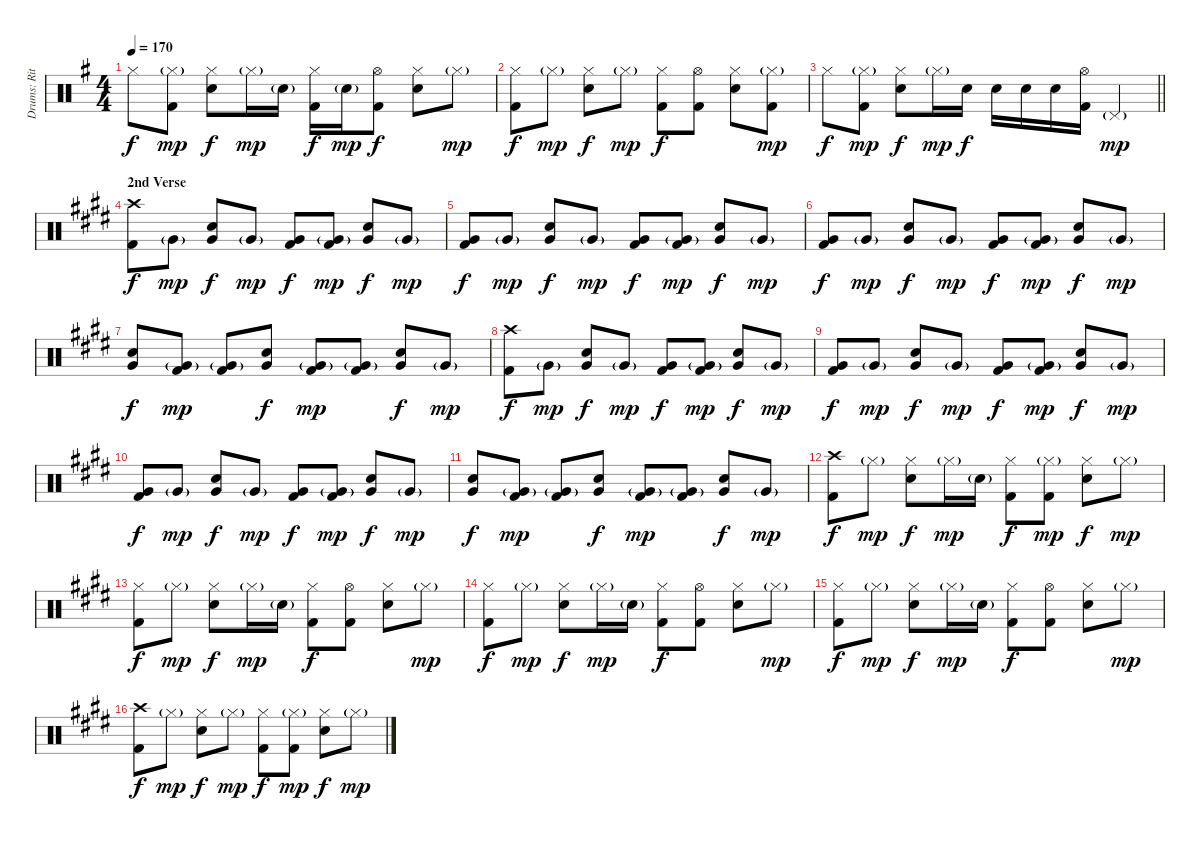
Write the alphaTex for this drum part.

\track ("Drums: Ritsu Tainaka" "Drums: Rit") {instrument percussion}
\staff {score}
\articulation defaults
\ts (4 4)
\tempo 170
\clef neutral
\ks eminor "Hi-Hat (closed)".8{dy f}
("Hi-Hat (closed)"{g} "Kick (hit) 2").8{dy mp} ("Hi-Hat (closed)" "Electric Snare (hit)").8{dy f} "Hi-Hat (closed)"{g}.16{dy mp} "Electric Snare (hit)"{g}.16 ("Hi-Hat (closed)" "Kick (hit) 2").16{dy f} "Electric Snare (hit)"{g}.16{dy mp} ("Hi-Hat (open)" "Kick (hit) 2").8{dy f} ("Hi-Hat (closed)" "Electric Snare (hit)").8 "Hi-Hat (closed)"{g}.8{dy mp} |
("Hi-Hat (closed)" "Kick (hit) 2").8{dy f} "Hi-Hat (closed)"{g}.8{dy mp} ("Hi-Hat (closed)" "Electric Snare (hit)").8{dy f} "Hi-Hat (closed)"{g}.8{dy mp} ("Hi-Hat (closed)" "Kick (hit) 2").8{dy f} ("Hi-Hat (open)" "Kick (hit) 2").8 ("Hi-Hat (closed)" "Electric Snare (hit)").8 ("Hi-Hat (closed)"{g} "Kick (hit) 2").8{dy mp} |
\barLineRight lightlight "Hi-Hat (closed)".8{dy f}
("Hi-Hat (closed)"{g} "Kick (hit) 2").8{dy mp} ("Hi-Hat (closed)" "Electric Snare (hit)").8{dy f} "Hi-Hat (closed)"{g}.16{dy mp} "Electric Snare (hit)".16{dy f} "Electric Snare (hit)".16 "Electric Snare (hit)".16 "Electric Snare (hit)".16 ("Hi-Hat (open)" "Kick (hit) 2").16 "Pedal Hi-Hat (hit)"{g}.4{dy mp} |
\section ("" "2nd Verse")
\ks e
("Crash high (hit)" "Kick (hit) 2").8{dy f} "Very Low Tom (hit)"{g}.8{dy mp} ("Electric Snare (hit)" "Very Low Tom (hit)").8{dy f} "Very Low Tom (hit)"{g}.8{dy mp} ("Very Low Tom (hit)" "Kick (hit) 2").8{dy f} ("Very Low Tom (hit)"{g} "Kick (hit) 2").8{dy mp} ("Electric Snare (hit)" "Very Low Tom (hit)").8{dy f} "Very Low Tom (hit)"{g}.8{dy mp} |
("Very Low Tom (hit)" "Kick (hit) 2").8{dy f} "Very Low Tom (hit)"{g}.8{dy mp} ("Electric Snare (hit)" "Very Low Tom (hit)").8{dy f} "Very Low Tom (hit)"{g}.8{dy mp} ("Very Low Tom (hit)" "Kick (hit) 2").8{dy f} ("Very Low Tom (hit)"{g} "Kick (hit) 2").8{dy mp} ("Electric Snare (hit)" "Very Low Tom (hit)").8{dy f} "Very Low Tom (hit)"{g}.8{dy mp} |
("Very Low Tom (hit)" "Kick (hit) 2").8{dy f} "Very Low Tom (hit)"{g}.8{dy mp} ("Electric Snare (hit)" "Very Low Tom (hit)").8{dy f} "Very Low Tom (hit)"{g}.8{dy mp} ("Very Low Tom (hit)" "Kick (hit) 2").8{dy f} ("Very Low Tom (hit)"{g} "Kick (hit) 2").8{dy mp} ("Electric Snare (hit)" "Very Low Tom (hit)").8{dy f} "Very Low Tom (hit)"{g}.8{dy mp} |
("Electric Snare (hit)" "Very Low Tom (hit)").8{dy f} ("Very Low Tom (hit)"{g} "Kick (hit) 2").8{dy mp} ("Very Low Tom (hit)"{g} "Kick (hit) 2").8 ("Electric Snare (hit)" "Very Low Tom (hit)").8{dy f} ("Very Low Tom (hit)"{g} "Kick (hit) 2").8{dy mp} ("Very Low Tom (hit)"{g} "Kick (hit) 2").8 ("Electric Snare (hit)" "Very Low Tom (hit)").8{dy f} "Very Low Tom (hit)"{g}.8{dy mp} |
("Crash high (hit)" "Kick (hit) 2").8{dy f} "Very Low Tom (hit)"{g}.8{dy mp} ("Electric Snare (hit)" "Very Low Tom (hit)").8{dy f} "Very Low Tom (hit)"{g}.8{dy mp} ("Very Low Tom (hit)" "Kick (hit) 2").8{dy f} ("Very Low Tom (hit)"{g} "Kick (hit) 2").8{dy mp} ("Electric Snare (hit)" "Very Low Tom (hit)").8{dy f} "Very Low Tom (hit)"{g}.8{dy mp} |
("Very Low Tom (hit)" "Kick (hit) 2").8{dy f} "Very Low Tom (hit)"{g}.8{dy mp} ("Electric Snare (hit)" "Very Low Tom (hit)").8{dy f} "Very Low Tom (hit)"{g}.8{dy mp} ("Very Low Tom (hit)" "Kick (hit) 2").8{dy f} ("Very Low Tom (hit)"{g} "Kick (hit) 2").8{dy mp} ("Electric Snare (hit)" "Very Low Tom (hit)").8{dy f} "Very Low Tom (hit)"{g}.8{dy mp} |
("Very Low Tom (hit)" "Kick (hit) 2").8{dy f} "Very Low Tom (hit)"{g}.8{dy mp} ("Electric Snare (hit)" "Very Low Tom (hit)").8{dy f} "Very Low Tom (hit)"{g}.8{dy mp} ("Very Low Tom (hit)" "Kick (hit) 2").8{dy f} ("Very Low Tom (hit)"{g} "Kick (hit) 2").8{dy mp} ("Electric Snare (hit)" "Very Low Tom (hit)").8{dy f} "Very Low Tom (hit)"{g}.8{dy mp} |
("Electric Snare (hit)" "Very Low Tom (hit)").8{dy f} ("Very Low Tom (hit)"{g} "Kick (hit) 2").8{dy mp} ("Very Low Tom (hit)"{g} "Kick (hit) 2").8 ("Electric Snare (hit)" "Very Low Tom (hit)").8{dy f} ("Very Low Tom (hit)"{g} "Kick (hit) 2").8{dy mp} ("Very Low Tom (hit)"{g} "Kick (hit) 2").8 ("Electric Snare (hit)" "Very Low Tom (hit)").8{dy f} "Very Low Tom (hit)"{g}.8{dy mp} |
("Crash high (hit)" "Kick (hit) 2").8{dy f} "Hi-Hat (closed)"{g}.8{dy mp} ("Hi-Hat (closed)" "Electric Snare (hit)").8{dy f} "Hi-Hat (closed)"{g}.16{dy mp} "Electric Snare (hit)"{g}.16 ("Hi-Hat (closed)" "Kick (hit) 2").8{dy f} ("Hi-Hat (closed)"{g} "Kick (hit) 2").8{dy mp} ("Hi-Hat (closed)" "Electric Snare (hit)").8{dy f} "Hi-Hat (closed)"{g}.8{dy mp} |
("Hi-Hat (closed)" "Kick (hit) 2").8{dy f} "Hi-Hat (closed)"{g}.8{dy mp} ("Hi-Hat (closed)" "Electric Snare (hit)").8{dy f} "Hi-Hat (closed)"{g}.16{dy mp} "Electric Snare (hit)"{g}.16 ("Hi-Hat (closed)" "Kick (hit) 2").8{dy f} ("Hi-Hat (open)" "Kick (hit) 2").8 ("Hi-Hat (closed)" "Electric Snare (hit)").8 "Hi-Hat (closed)"{g}.8{dy mp} |
("Hi-Hat (closed)" "Kick (hit) 2").8{dy f} "Hi-Hat (closed)"{g}.8{dy mp} ("Hi-Hat (closed)" "Electric Snare (hit)").8{dy f} "Hi-Hat (closed)"{g}.16{dy mp} "Electric Snare (hit)"{g}.16 ("Hi-Hat (closed)" "Kick (hit) 2").8{dy f} ("Hi-Hat (open)" "Kick (hit) 2").8 ("Hi-Hat (closed)" "Electric Snare (hit)").8 "Hi-Hat (closed)"{g}.8{dy mp} |
("Hi-Hat (closed)" "Kick (hit) 2").8{dy f} "Hi-Hat (closed)"{g}.8{dy mp} ("Hi-Hat (closed)" "Electric Snare (hit)").8{dy f} "Hi-Hat (closed)"{g}.16{dy mp} "Electric Snare (hit)"{g}.16 ("Hi-Hat (closed)" "Kick (hit) 2").8{dy f} ("Hi-Hat (open)" "Kick (hit) 2").8 ("Hi-Hat (closed)" "Electric Snare (hit)").8 "Hi-Hat (closed)"{g}.8{dy mp} |
("Crash high (hit)" "Kick (hit) 2").8{dy f} "Hi-Hat (closed)"{g}.8{dy mp} ("Hi-Hat (closed)" "Electric Snare (hit)").8{dy f} "Hi-Hat (closed)"{g}.8{dy mp} ("Hi-Hat (closed)" "Kick (hit) 2").8{dy f} ("Hi-Hat (closed)"{g} "Kick (hit) 2").8{dy mp} ("Hi-Hat (closed)" "Electric Snare (hit)").8{dy f} "Hi-Hat (closed)"{g}.8{dy mp}
